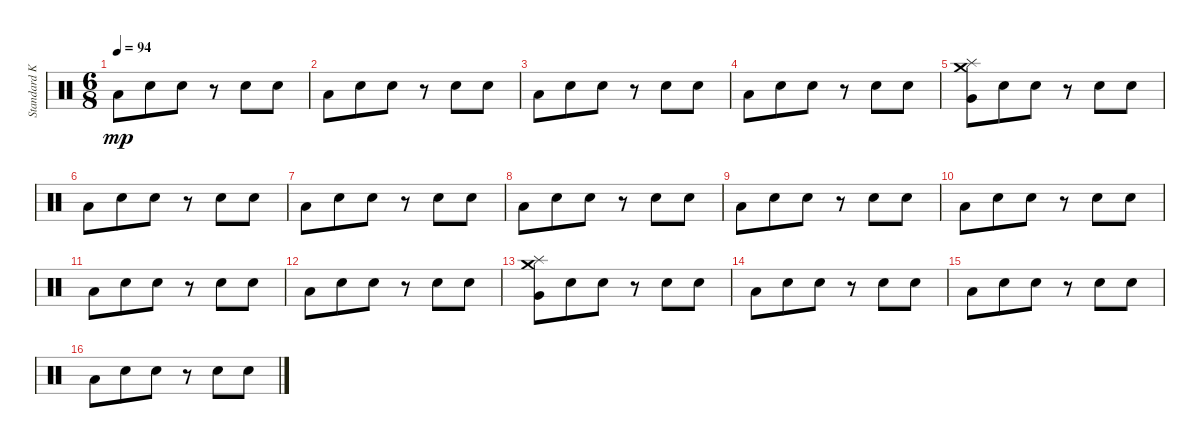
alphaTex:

\track ("Standard Kit" "Standard K") {instrument percussion}
\staff {score}
\articulation defaults
\ts (6 8)
\tempo 94
\clef neutral
\ks c "Low Floor Tom (hit)".8{dy mp} "Electric Snare (hit)".8 "Electric Snare (hit)".8
r.8 "Electric Snare (hit)".8 "Electric Snare (hit)".8 |
"Low Floor Tom (hit)".8 "Electric Snare (hit)".8 "Electric Snare (hit)".8 r.8 "Electric Snare (hit)".8 "Electric Snare (hit)".8 |
"Low Floor Tom (hit)".8 "Electric Snare (hit)".8 "Electric Snare (hit)".8 r.8 "Electric Snare (hit)".8 "Electric Snare (hit)".8 |
"Low Floor Tom (hit)".8 "Electric Snare (hit)".8 "Electric Snare (hit)".8 r.8 "Electric Snare (hit)".8 "Electric Snare (hit)".8 |
("Very Low Tom (hit)" "Splash (hit)" "Crash medium (hit)").8 "Electric Snare (hit)".8 "Electric Snare (hit)".8 r.8 "Electric Snare (hit)".8 "Electric Snare (hit)".8 |
"Low Floor Tom (hit)".8 "Electric Snare (hit)".8 "Electric Snare (hit)".8 r.8 "Electric Snare (hit)".8 "Electric Snare (hit)".8 |
"Low Floor Tom (hit)".8 "Electric Snare (hit)".8 "Electric Snare (hit)".8 r.8 "Electric Snare (hit)".8 "Electric Snare (hit)".8 |
"Low Floor Tom (hit)".8 "Electric Snare (hit)".8 "Electric Snare (hit)".8 r.8 "Electric Snare (hit)".8 "Electric Snare (hit)".8 |
"Low Floor Tom (hit)".8 "Electric Snare (hit)".8 "Electric Snare (hit)".8 r.8 "Electric Snare (hit)".8 "Electric Snare (hit)".8 |
"Low Floor Tom (hit)".8 "Electric Snare (hit)".8 "Electric Snare (hit)".8 r.8 "Electric Snare (hit)".8 "Electric Snare (hit)".8 |
"Low Floor Tom (hit)".8 "Electric Snare (hit)".8 "Electric Snare (hit)".8 r.8 "Electric Snare (hit)".8 "Electric Snare (hit)".8 |
"Low Floor Tom (hit)".8 "Electric Snare (hit)".8 "Electric Snare (hit)".8 r.8 "Electric Snare (hit)".8 "Electric Snare (hit)".8 |
("Very Low Tom (hit)" "Splash (hit)" "Crash medium (hit)").8 "Electric Snare (hit)".8 "Electric Snare (hit)".8 r.8 "Electric Snare (hit)".8 "Electric Snare (hit)".8 |
"Low Floor Tom (hit)".8 "Electric Snare (hit)".8 "Electric Snare (hit)".8 r.8 "Electric Snare (hit)".8 "Electric Snare (hit)".8 |
"Low Floor Tom (hit)".8 "Electric Snare (hit)".8 "Electric Snare (hit)".8 r.8 "Electric Snare (hit)".8 "Electric Snare (hit)".8 |
"Low Floor Tom (hit)".8 "Electric Snare (hit)".8 "Electric Snare (hit)".8 r.8 "Electric Snare (hit)".8 "Electric Snare (hit)".8
